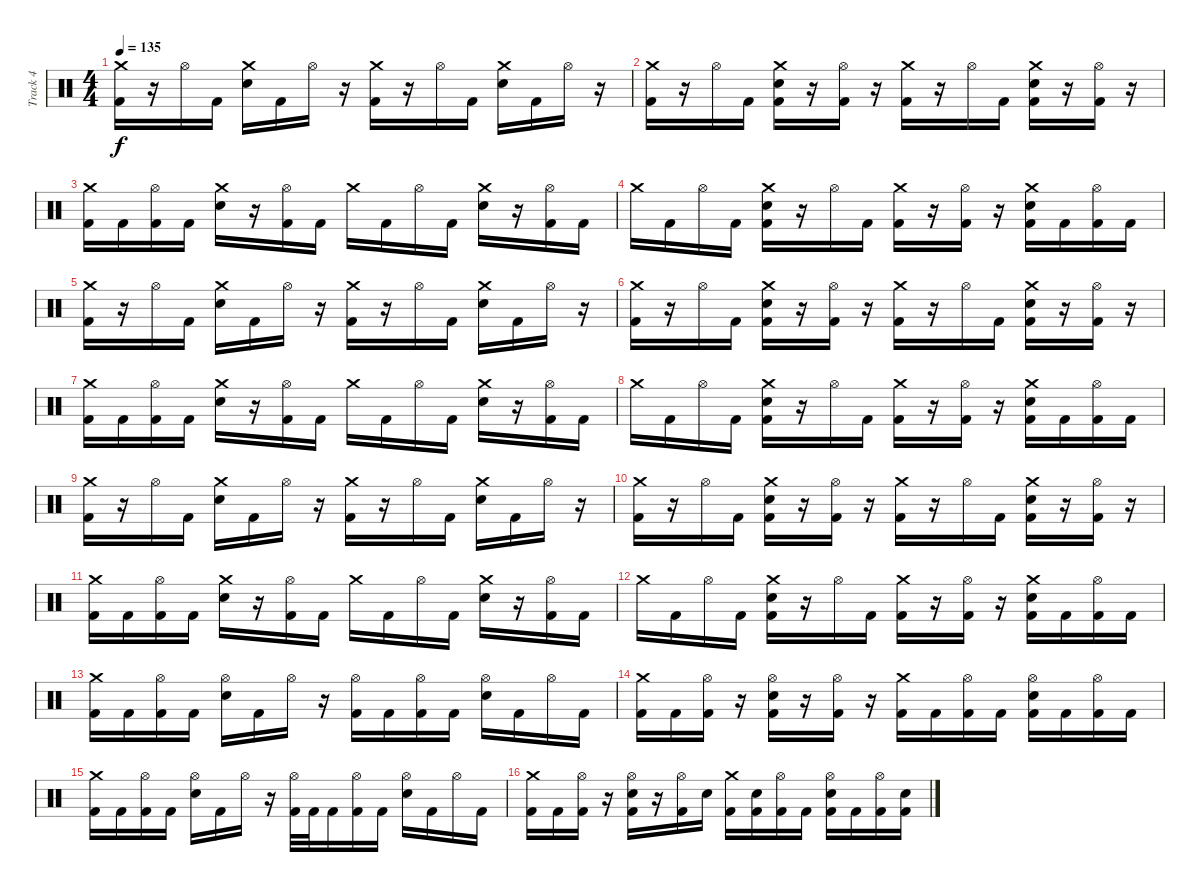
\track ("Track 4" "Track 4") {instrument percussion}
\staff {score}
\articulation defaults
\ts (4 4)
\tempo 135
\clef neutral
\ks c
("Crash medium (hit)" "Kick (hit) 2").16{dy f} r.16 "Hi-Hat (open)".16 "Kick (hit) 2".16 ("Crash medium (hit)" "Electric Snare (hit)").16 "Kick (hit) 2".16 "Hi-Hat (open)".16 r.16 ("Crash medium (hit)" "Kick (hit) 2").16 r.16 "Hi-Hat (open)".16 "Kick (hit) 2".16 ("Crash medium (hit)" "Electric Snare (hit)").16 "Kick (hit) 2".16 "Hi-Hat (open)".16 r.16 |
("Crash medium (hit)" "Kick (hit) 2").16 r.16 "Hi-Hat (open)".16 "Kick (hit) 2".16 ("Crash medium (hit)" "Electric Snare (hit)" "Kick (hit) 2").16 r.16 ("Hi-Hat (open)" "Kick (hit) 2").16 r.16 ("Crash medium (hit)" "Kick (hit) 2").16 r.16 "Hi-Hat (open)".16 "Kick (hit) 2".16 ("Crash medium (hit)" "Electric Snare (hit)" "Kick (hit) 2").16 r.16 ("Hi-Hat (open)" "Kick (hit) 2").16 r.16 |
("Crash medium (hit)" "Kick (hit) 2").16 "Kick (hit) 2".16 ("Hi-Hat (open)" "Kick (hit) 2").16 "Kick (hit) 2".16 ("Crash medium (hit)" "Electric Snare (hit)").16 r.16 ("Hi-Hat (open)" "Kick (hit) 2").16 "Kick (hit) 2".16 "Crash medium (hit)".16 "Kick (hit) 2".16 "Hi-Hat (open)".16 "Kick (hit) 2".16 ("Crash medium (hit)" "Electric Snare (hit)").16 r.16 ("Hi-Hat (open)" "Kick (hit) 2").16 "Kick (hit) 2".16 |
"Crash medium (hit)".16 "Kick (hit) 2".16 "Hi-Hat (open)".16 "Kick (hit) 2".16 ("Crash medium (hit)" "Electric Snare (hit)" "Kick (hit) 2").16 r.16 "Hi-Hat (open)".16 "Kick (hit) 2".16 ("Crash medium (hit)" "Kick (hit) 2").16 r.16 ("Hi-Hat (open)" "Kick (hit) 2").16 r.16 ("Crash medium (hit)" "Electric Snare (hit)" "Kick (hit) 2").16 "Kick (hit) 2".16 ("Hi-Hat (open)" "Kick (hit) 2").16 "Kick (hit) 2".16 |
("Crash medium (hit)" "Kick (hit) 2").16 r.16 "Hi-Hat (open)".16 "Kick (hit) 2".16 ("Crash medium (hit)" "Electric Snare (hit)").16 "Kick (hit) 2".16 "Hi-Hat (open)".16 r.16 ("Crash medium (hit)" "Kick (hit) 2").16 r.16 "Hi-Hat (open)".16 "Kick (hit) 2".16 ("Crash medium (hit)" "Electric Snare (hit)").16 "Kick (hit) 2".16 "Hi-Hat (open)".16 r.16 |
("Crash medium (hit)" "Kick (hit) 2").16 r.16 "Hi-Hat (open)".16 "Kick (hit) 2".16 ("Crash medium (hit)" "Electric Snare (hit)" "Kick (hit) 2").16 r.16 ("Hi-Hat (open)" "Kick (hit) 2").16 r.16 ("Crash medium (hit)" "Kick (hit) 2").16 r.16 "Hi-Hat (open)".16 "Kick (hit) 2".16 ("Crash medium (hit)" "Electric Snare (hit)" "Kick (hit) 2").16 r.16 ("Hi-Hat (open)" "Kick (hit) 2").16 r.16 |
("Crash medium (hit)" "Kick (hit) 2").16 "Kick (hit) 2".16 ("Hi-Hat (open)" "Kick (hit) 2").16 "Kick (hit) 2".16 ("Crash medium (hit)" "Electric Snare (hit)").16 r.16 ("Hi-Hat (open)" "Kick (hit) 2").16 "Kick (hit) 2".16 "Crash medium (hit)".16 "Kick (hit) 2".16 "Hi-Hat (open)".16 "Kick (hit) 2".16 ("Crash medium (hit)" "Electric Snare (hit)").16 r.16 ("Hi-Hat (open)" "Kick (hit) 2").16 "Kick (hit) 2".16 |
"Crash medium (hit)".16 "Kick (hit) 2".16 "Hi-Hat (open)".16 "Kick (hit) 2".16 ("Crash medium (hit)" "Electric Snare (hit)" "Kick (hit) 2").16 r.16 "Hi-Hat (open)".16 "Kick (hit) 2".16 ("Crash medium (hit)" "Kick (hit) 2").16 r.16 ("Hi-Hat (open)" "Kick (hit) 2").16 r.16 ("Crash medium (hit)" "Electric Snare (hit)" "Kick (hit) 2").16 "Kick (hit) 2".16 ("Hi-Hat (open)" "Kick (hit) 2").16 "Kick (hit) 2".16 |
("Crash medium (hit)" "Kick (hit) 2").16 r.16 "Hi-Hat (open)".16 "Kick (hit) 2".16 ("Crash medium (hit)" "Electric Snare (hit)").16 "Kick (hit) 2".16 "Hi-Hat (open)".16 r.16 ("Crash medium (hit)" "Kick (hit) 2").16 r.16 "Hi-Hat (open)".16 "Kick (hit) 2".16 ("Crash medium (hit)" "Electric Snare (hit)").16 "Kick (hit) 2".16 "Hi-Hat (open)".16 r.16 |
("Crash medium (hit)" "Kick (hit) 2").16 r.16 "Hi-Hat (open)".16 "Kick (hit) 2".16 ("Crash medium (hit)" "Electric Snare (hit)" "Kick (hit) 2").16 r.16 ("Hi-Hat (open)" "Kick (hit) 2").16 r.16 ("Crash medium (hit)" "Kick (hit) 2").16 r.16 "Hi-Hat (open)".16 "Kick (hit) 2".16 ("Crash medium (hit)" "Electric Snare (hit)" "Kick (hit) 2").16 r.16 ("Hi-Hat (open)" "Kick (hit) 2").16 r.16 |
("Crash medium (hit)" "Kick (hit) 2").16 "Kick (hit) 2".16 ("Hi-Hat (open)" "Kick (hit) 2").16 "Kick (hit) 2".16 ("Crash medium (hit)" "Electric Snare (hit)").16 r.16 ("Hi-Hat (open)" "Kick (hit) 2").16 "Kick (hit) 2".16 "Crash medium (hit)".16 "Kick (hit) 2".16 "Hi-Hat (open)".16 "Kick (hit) 2".16 ("Crash medium (hit)" "Electric Snare (hit)").16 r.16 ("Hi-Hat (open)" "Kick (hit) 2").16 "Kick (hit) 2".16 |
"Crash medium (hit)".16 "Kick (hit) 2".16 "Hi-Hat (open)".16 "Kick (hit) 2".16 ("Crash medium (hit)" "Electric Snare (hit)" "Kick (hit) 2").16 r.16 "Hi-Hat (open)".16 "Kick (hit) 2".16 ("Crash medium (hit)" "Kick (hit) 2").16 r.16 ("Hi-Hat (open)" "Kick (hit) 2").16 r.16 ("Crash medium (hit)" "Electric Snare (hit)" "Kick (hit) 2").16 "Kick (hit) 2".16 ("Hi-Hat (open)" "Kick (hit) 2").16 "Kick (hit) 2".16 |
("Crash medium (hit)" "Kick (hit) 2").16 "Kick (hit) 2".16 ("Hi-Hat (open)" "Kick (hit) 2").16 "Kick (hit) 2".16 ("Hi-Hat (open)" "Electric Snare (hit)").16 "Kick (hit) 2".16 "Hi-Hat (open)".16 r.16 ("Hi-Hat (open)" "Kick (hit) 2").16 "Kick (hit) 2".16 ("Hi-Hat (open)" "Kick (hit) 2").16 "Kick (hit) 2".16 ("Hi-Hat (open)" "Electric Snare (hit)").16 "Kick (hit) 2".16 "Hi-Hat (open)".16 "Kick (hit) 2".16 |
("Crash medium (hit)" "Kick (hit) 2").16 "Kick (hit) 2".16 ("Hi-Hat (open)" "Kick (hit) 2").16 r.16 ("Hi-Hat (open)" "Electric Snare (hit)" "Kick (hit) 2").16 r.16 ("Hi-Hat (open)" "Kick (hit) 2").16 r.16 ("Crash medium (hit)" "Kick (hit) 2").16 "Kick (hit) 2".16 ("Hi-Hat (open)" "Kick (hit) 2").16 "Kick (hit) 2".16 ("Hi-Hat (open)" "Electric Snare (hit)" "Kick (hit) 2").16 "Kick (hit) 2".16 ("Hi-Hat (open)" "Kick (hit) 2").16 "Kick (hit) 2".16 |
("Crash medium (hit)" "Kick (hit) 2").16 "Kick (hit) 2".16 ("Hi-Hat (open)" "Kick (hit) 2").16 "Kick (hit) 2".16 ("Hi-Hat (open)" "Electric Snare (hit)").16 "Kick (hit) 2".16 "Hi-Hat (open)".16 r.16 ("Hi-Hat (open)" "Kick (hit) 2").32 "Kick (hit) 2".32 "Kick (hit) 2".16 ("Hi-Hat (open)" "Kick (hit) 2").16 "Kick (hit) 2".16 ("Hi-Hat (open)" "Electric Snare (hit)").16 "Kick (hit) 2".16 "Hi-Hat (open)".16 "Kick (hit) 2".16 |
("Crash medium (hit)" "Kick (hit) 2").16 "Kick (hit) 2".16 ("Hi-Hat (open)" "Kick (hit) 2").16 r.16 ("Hi-Hat (open)" "Electric Snare (hit)" "Kick (hit) 2").16 r.16 ("Hi-Hat (open)" "Kick (hit) 2").16 "Electric Snare (hit)".16 ("Crash medium (hit)" "Kick (hit) 2").16 ("Electric Snare (hit)" "Kick (hit) 2").16 ("Hi-Hat (open)" "Kick (hit) 2").16 "Kick (hit) 2".16 ("Hi-Hat (open)" "Electric Snare (hit)" "Kick (hit) 2").16 "Kick (hit) 2".16 ("Hi-Hat (open)" "Kick (hit) 2").16 ("Electric Snare (hit)" "Kick (hit) 2").16
